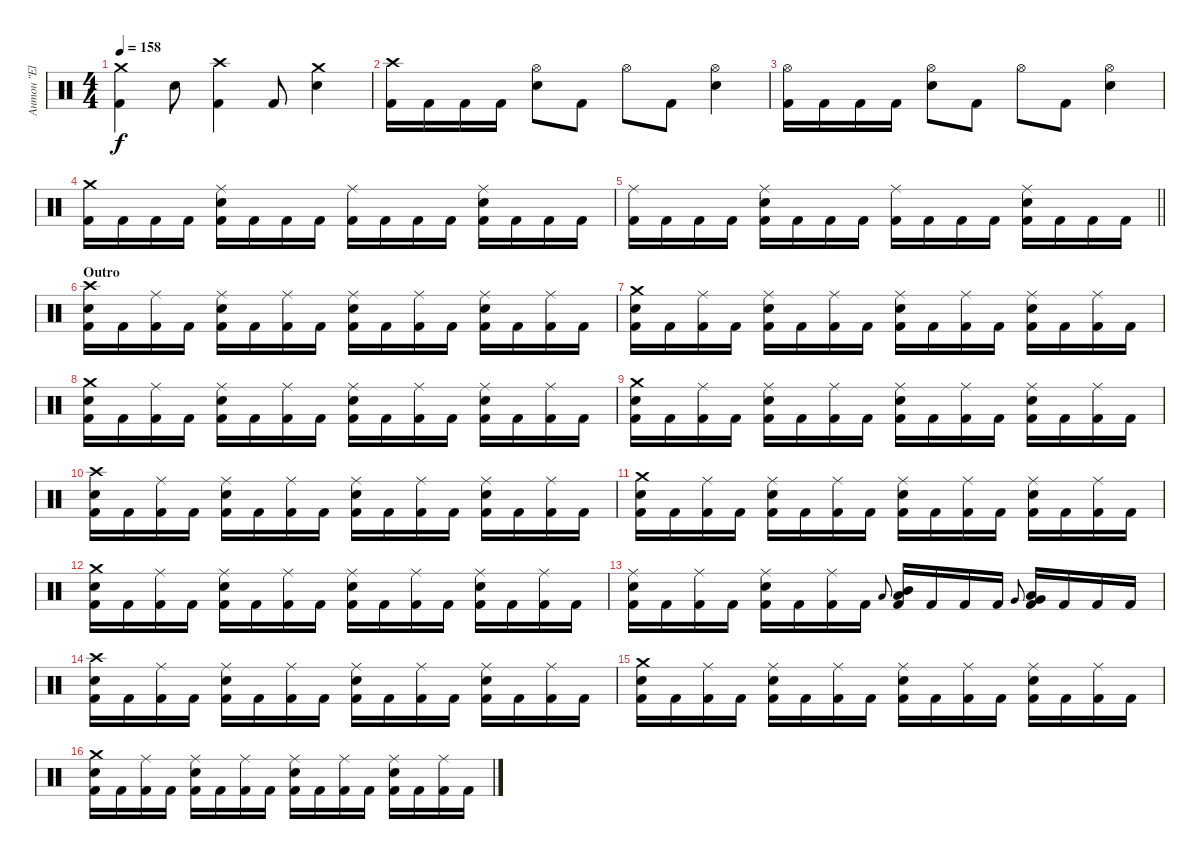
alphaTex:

\track ("Антон \"El Bastardo\" Смольянин" "Антон \"El ") {instrument percussion}
\staff {score}
\articulation defaults
\ts (4 4)
\tempo 158
\clef neutral
\ks c
("Crash medium (hit)" "Kick (hit) 2").4{dy f} "Electric Snare (hit)".8 ("Crash high (hit)" "Kick (hit) 2").4 "Kick (hit) 2".8 ("Crash medium (hit)" "Electric Snare (hit)").4 |
("Crash high (hit)" "Kick (hit) 2").16 "Kick (hit) 2".16 "Kick (hit) 2".16 "Kick (hit) 2".16 ("Hi-Hat (open)" "Electric Snare (hit)").8 "Kick (hit) 2".8 "Hi-Hat (open)".8 "Kick (hit) 2".8 ("Hi-Hat (open)" "Electric Snare (hit)").4 |
("Hi-Hat (open)" "Kick (hit) 2").16 "Kick (hit) 2".16 "Kick (hit) 2".16 "Kick (hit) 2".16 ("Hi-Hat (open)" "Electric Snare (hit)").8 "Kick (hit) 2".8 "Hi-Hat (open)".8 "Kick (hit) 2".8 ("Hi-Hat (open)" "Electric Snare (hit)").4 |
("Crash medium (hit)" "Kick (hit) 2").16 "Kick (hit) 2".16 "Kick (hit) 2".16 "Kick (hit) 2".16 ("Ride (middle)" "Electric Snare (hit)" "Kick (hit) 2").16 "Kick (hit) 2".16 "Kick (hit) 2".16 "Kick (hit) 2".16 ("Ride (middle)" "Kick (hit) 2").16 "Kick (hit) 2".16 "Kick (hit) 2".16 "Kick (hit) 2".16 ("Ride (middle)" "Electric Snare (hit)" "Kick (hit) 2").16 "Kick (hit) 2".16 "Kick (hit) 2".16 "Kick (hit) 2".16 |
\barLineRight lightlight
("Ride (middle)" "Kick (hit) 2").16 "Kick (hit) 2".16 "Kick (hit) 2".16 "Kick (hit) 2".16 ("Ride (middle)" "Electric Snare (hit)" "Kick (hit) 2").16 "Kick (hit) 2".16 "Kick (hit) 2".16 "Kick (hit) 2".16 ("Ride (middle)" "Kick (hit) 2").16 "Kick (hit) 2".16 "Kick (hit) 2".16 "Kick (hit) 2".16 ("Ride (middle)" "Electric Snare (hit)" "Kick (hit) 2").16 "Kick (hit) 2".16 "Kick (hit) 2".16 "Kick (hit) 2".16 |
\section ("" "Outro")
("Crash high (hit)" "Electric Snare (hit)" "Kick (hit) 2").16 "Kick (hit) 2".16 ("Ride (middle)" "Kick (hit) 2").16 "Kick (hit) 2".16 ("Ride (middle)" "Electric Snare (hit)" "Kick (hit) 2").16 "Kick (hit) 2".16 ("Ride (middle)" "Kick (hit) 2").16 "Kick (hit) 2".16 ("Ride (middle)" "Electric Snare (hit)" "Kick (hit) 2").16 "Kick (hit) 2".16 ("Ride (middle)" "Kick (hit) 2").16 "Kick (hit) 2".16 ("Ride (middle)" "Electric Snare (hit)" "Kick (hit) 2").16 "Kick (hit) 2".16 ("Ride (middle)" "Kick (hit) 2").16 "Kick (hit) 2".16 |
("Crash medium (hit)" "Electric Snare (hit)" "Kick (hit) 2").16 "Kick (hit) 2".16 ("Ride (middle)" "Kick (hit) 2").16 "Kick (hit) 2".16 ("Ride (middle)" "Electric Snare (hit)" "Kick (hit) 2").16 "Kick (hit) 2".16 ("Ride (middle)" "Kick (hit) 2").16 "Kick (hit) 2".16 ("Ride (middle)" "Electric Snare (hit)" "Kick (hit) 2").16 "Kick (hit) 2".16 ("Ride (middle)" "Kick (hit) 2").16 "Kick (hit) 2".16 ("Ride (middle)" "Electric Snare (hit)" "Kick (hit) 2").16 "Kick (hit) 2".16 ("Ride (middle)" "Kick (hit) 2").16 "Kick (hit) 2".16 |
("Crash medium (hit)" "Electric Snare (hit)" "Kick (hit) 2").16 "Kick (hit) 2".16 ("Ride (middle)" "Kick (hit) 2").16 "Kick (hit) 2".16 ("Ride (middle)" "Electric Snare (hit)" "Kick (hit) 2").16 "Kick (hit) 2".16 ("Ride (middle)" "Kick (hit) 2").16 "Kick (hit) 2".16 ("Ride (middle)" "Electric Snare (hit)" "Kick (hit) 2").16 "Kick (hit) 2".16 ("Ride (middle)" "Kick (hit) 2").16 "Kick (hit) 2".16 ("Ride (middle)" "Electric Snare (hit)" "Kick (hit) 2").16 "Kick (hit) 2".16 ("Ride (middle)" "Kick (hit) 2").16 "Kick (hit) 2".16 |
("Crash medium (hit)" "Electric Snare (hit)" "Kick (hit) 2").16 "Kick (hit) 2".16 ("Ride (middle)" "Kick (hit) 2").16 "Kick (hit) 2".16 ("Ride (middle)" "Electric Snare (hit)" "Kick (hit) 2").16 "Kick (hit) 2".16 ("Ride (middle)" "Kick (hit) 2").16 "Kick (hit) 2".16 ("Ride (middle)" "Electric Snare (hit)" "Kick (hit) 2").16 "Kick (hit) 2".16 ("Ride (middle)" "Kick (hit) 2").16 "Kick (hit) 2".16 ("Ride (middle)" "Electric Snare (hit)" "Kick (hit) 2").16 "Kick (hit) 2".16 ("Ride (middle)" "Kick (hit) 2").16 "Kick (hit) 2".16 |
("Crash high (hit)" "Electric Snare (hit)" "Kick (hit) 2").16 "Kick (hit) 2".16 ("Ride (middle)" "Kick (hit) 2").16 "Kick (hit) 2".16 ("Ride (middle)" "Electric Snare (hit)" "Kick (hit) 2").16 "Kick (hit) 2".16 ("Ride (middle)" "Kick (hit) 2").16 "Kick (hit) 2".16 ("Ride (middle)" "Electric Snare (hit)" "Kick (hit) 2").16 "Kick (hit) 2".16 ("Ride (middle)" "Kick (hit) 2").16 "Kick (hit) 2".16 ("Ride (middle)" "Electric Snare (hit)" "Kick (hit) 2").16 "Kick (hit) 2".16 ("Ride (middle)" "Kick (hit) 2").16 "Kick (hit) 2".16 |
("Crash medium (hit)" "Electric Snare (hit)" "Kick (hit) 2").16 "Kick (hit) 2".16 ("Ride (middle)" "Kick (hit) 2").16 "Kick (hit) 2".16 ("Ride (middle)" "Electric Snare (hit)" "Kick (hit) 2").16 "Kick (hit) 2".16 ("Ride (middle)" "Kick (hit) 2").16 "Kick (hit) 2".16 ("Ride (middle)" "Electric Snare (hit)" "Kick (hit) 2").16 "Kick (hit) 2".16 ("Ride (middle)" "Kick (hit) 2").16 "Kick (hit) 2".16 ("Ride (middle)" "Electric Snare (hit)" "Kick (hit) 2").16 "Kick (hit) 2".16 ("Ride (middle)" "Kick (hit) 2").16 "Kick (hit) 2".16 |
("Crash medium (hit)" "Electric Snare (hit)" "Kick (hit) 2").16 "Kick (hit) 2".16 ("Ride (middle)" "Kick (hit) 2").16 "Kick (hit) 2".16 ("Ride (middle)" "Electric Snare (hit)" "Kick (hit) 2").16 "Kick (hit) 2".16 ("Ride (middle)" "Kick (hit) 2").16 "Kick (hit) 2".16 ("Ride (middle)" "Electric Snare (hit)" "Kick (hit) 2").16 "Kick (hit) 2".16 ("Ride (middle)" "Kick (hit) 2").16 "Kick (hit) 2".16 ("Ride (middle)" "Electric Snare (hit)" "Kick (hit) 2").16 "Kick (hit) 2".16 ("Ride (middle)" "Kick (hit) 2").16 "Kick (hit) 2".16 |
("Ride (middle)" "Electric Snare (hit)" "Kick (hit) 2").16 "Kick (hit) 2".16 ("Ride (middle)" "Kick (hit) 2").16 "Kick (hit) 2".16 ("Ride (middle)" "Electric Snare (hit)" "Kick (hit) 2").16 "Kick (hit) 2".16 ("Ride (middle)" "Kick (hit) 2").16 "Kick (hit) 2".16 "Low Tom (hit)".8{gr onbeat} ("Mid Tom (hit)" "Low Tom (hit)" "Kick (hit) 2").16 "Kick (hit) 2".16 "Kick (hit) 2".16 "Kick (hit) 2".16 "Very Low Tom (hit)".8{gr onbeat} ("Low Tom (hit)" "Very Low Tom (hit)" "Kick (hit) 2").16 "Kick (hit) 2".16 "Kick (hit) 2".16 "Kick (hit) 2".16 |
("Crash high (hit)" "Electric Snare (hit)" "Kick (hit) 2").16 "Kick (hit) 2".16 ("Ride (middle)" "Kick (hit) 2").16 "Kick (hit) 2".16 ("Ride (middle)" "Electric Snare (hit)" "Kick (hit) 2").16 "Kick (hit) 2".16 ("Ride (middle)" "Kick (hit) 2").16 "Kick (hit) 2".16 ("Ride (middle)" "Electric Snare (hit)" "Kick (hit) 2").16 "Kick (hit) 2".16 ("Ride (middle)" "Kick (hit) 2").16 "Kick (hit) 2".16 ("Ride (middle)" "Electric Snare (hit)" "Kick (hit) 2").16 "Kick (hit) 2".16 ("Ride (middle)" "Kick (hit) 2").16 "Kick (hit) 2".16 |
("Crash medium (hit)" "Electric Snare (hit)" "Kick (hit) 2").16 "Kick (hit) 2".16 ("Ride (middle)" "Kick (hit) 2").16 "Kick (hit) 2".16 ("Ride (middle)" "Electric Snare (hit)" "Kick (hit) 2").16 "Kick (hit) 2".16 ("Ride (middle)" "Kick (hit) 2").16 "Kick (hit) 2".16 ("Ride (middle)" "Electric Snare (hit)" "Kick (hit) 2").16 "Kick (hit) 2".16 ("Ride (middle)" "Kick (hit) 2").16 "Kick (hit) 2".16 ("Ride (middle)" "Electric Snare (hit)" "Kick (hit) 2").16 "Kick (hit) 2".16 ("Ride (middle)" "Kick (hit) 2").16 "Kick (hit) 2".16 |
("Crash medium (hit)" "Electric Snare (hit)" "Kick (hit) 2").16 "Kick (hit) 2".16 ("Ride (middle)" "Kick (hit) 2").16 "Kick (hit) 2".16 ("Ride (middle)" "Electric Snare (hit)" "Kick (hit) 2").16 "Kick (hit) 2".16 ("Ride (middle)" "Kick (hit) 2").16 "Kick (hit) 2".16 ("Ride (middle)" "Electric Snare (hit)" "Kick (hit) 2").16 "Kick (hit) 2".16 ("Ride (middle)" "Kick (hit) 2").16 "Kick (hit) 2".16 ("Ride (middle)" "Electric Snare (hit)" "Kick (hit) 2").16 "Kick (hit) 2".16 ("Ride (middle)" "Kick (hit) 2").16 "Kick (hit) 2".16
